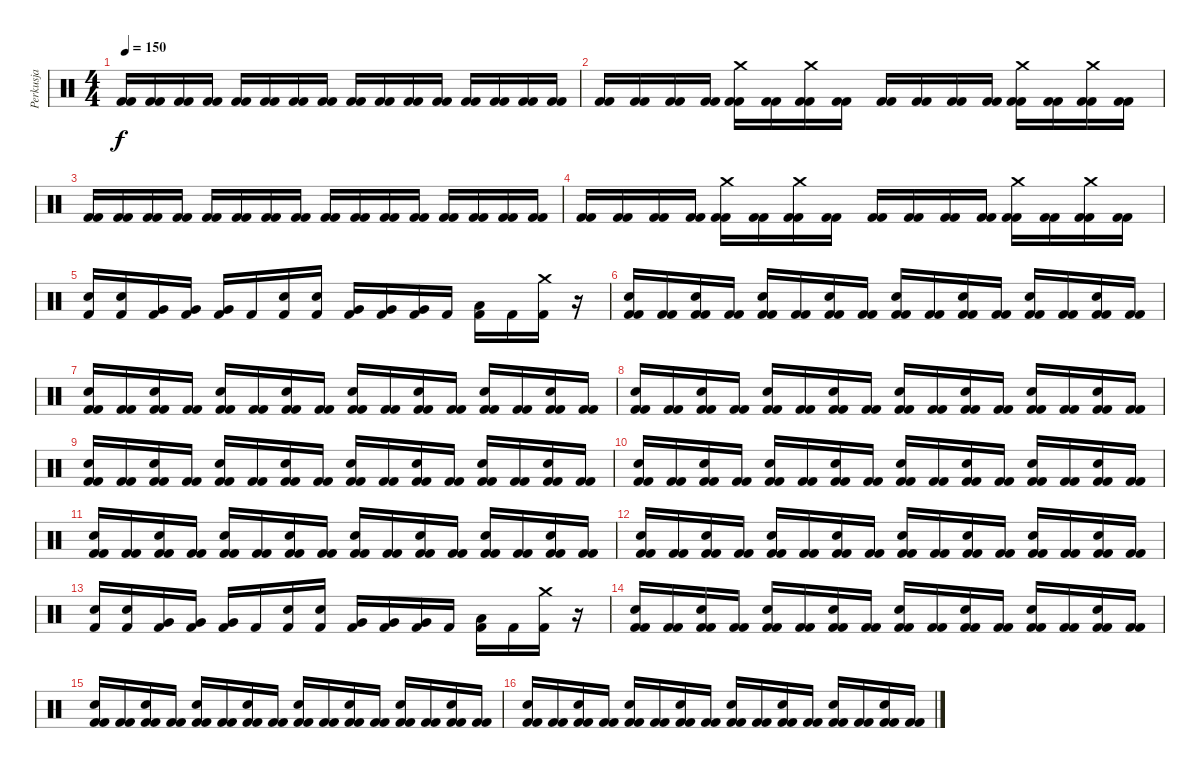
\track ("Perkusja" "Perkusja") {instrument percussion}
\staff {score}
\articulation defaults
\ts (4 4)
\tempo 150
\clef neutral
\ks c
("Kick (hit) 2" "Kick (hit) 2").16{dy f} ("Kick (hit) 2" "Kick (hit) 2").16 ("Kick (hit) 2" "Kick (hit) 2").16 ("Kick (hit) 2" "Kick (hit) 2").16 ("Kick (hit) 2" "Kick (hit) 2").16 ("Kick (hit) 2" "Kick (hit) 2").16 ("Kick (hit) 2" "Kick (hit) 2").16 ("Kick (hit) 2" "Kick (hit) 2").16 ("Kick (hit) 2" "Kick (hit) 2").16 ("Kick (hit) 2" "Kick (hit) 2").16 ("Kick (hit) 2" "Kick (hit) 2").16 ("Kick (hit) 2" "Kick (hit) 2").16 ("Kick (hit) 2" "Kick (hit) 2").16 ("Kick (hit) 2" "Kick (hit) 2").16 ("Kick (hit) 2" "Kick (hit) 2").16 ("Kick (hit) 2" "Kick (hit) 2").16 |
("Kick (hit) 2" "Kick (hit) 2").16 ("Kick (hit) 2" "Kick (hit) 2").16 ("Kick (hit) 2" "Kick (hit) 2").16 ("Kick (hit) 2" "Kick (hit) 2").16 ("Crash medium (hit)" "Kick (hit) 2" "Kick (hit) 2").16 ("Kick (hit) 2" "Kick (hit) 2").16 ("Crash medium (hit)" "Kick (hit) 2" "Kick (hit) 2").16 ("Kick (hit) 2" "Kick (hit) 2").16 ("Kick (hit) 2" "Kick (hit) 2").16 ("Kick (hit) 2" "Kick (hit) 2").16 ("Kick (hit) 2" "Kick (hit) 2").16 ("Kick (hit) 2" "Kick (hit) 2").16 ("Crash medium (hit)" "Kick (hit) 2" "Kick (hit) 2").16 ("Kick (hit) 2" "Kick (hit) 2").16 ("Crash medium (hit)" "Kick (hit) 2" "Kick (hit) 2").16 ("Kick (hit) 2" "Kick (hit) 2").16 |
("Kick (hit) 2" "Kick (hit) 2").16 ("Kick (hit) 2" "Kick (hit) 2").16 ("Kick (hit) 2" "Kick (hit) 2").16 ("Kick (hit) 2" "Kick (hit) 2").16 ("Kick (hit) 2" "Kick (hit) 2").16 ("Kick (hit) 2" "Kick (hit) 2").16 ("Kick (hit) 2" "Kick (hit) 2").16 ("Kick (hit) 2" "Kick (hit) 2").16 ("Kick (hit) 2" "Kick (hit) 2").16 ("Kick (hit) 2" "Kick (hit) 2").16 ("Kick (hit) 2" "Kick (hit) 2").16 ("Kick (hit) 2" "Kick (hit) 2").16 ("Kick (hit) 2" "Kick (hit) 2").16 ("Kick (hit) 2" "Kick (hit) 2").16 ("Kick (hit) 2" "Kick (hit) 2").16 ("Kick (hit) 2" "Kick (hit) 2").16 |
("Kick (hit) 2" "Kick (hit) 2").16 ("Kick (hit) 2" "Kick (hit) 2").16 ("Kick (hit) 2" "Kick (hit) 2").16 ("Kick (hit) 2" "Kick (hit) 2").16 ("Crash medium (hit)" "Kick (hit) 2" "Kick (hit) 2").16 ("Kick (hit) 2" "Kick (hit) 2").16 ("Crash medium (hit)" "Kick (hit) 2" "Kick (hit) 2").16 ("Kick (hit) 2" "Kick (hit) 2").16 ("Kick (hit) 2" "Kick (hit) 2").16 ("Kick (hit) 2" "Kick (hit) 2").16 ("Kick (hit) 2" "Kick (hit) 2").16 ("Kick (hit) 2" "Kick (hit) 2").16 ("Crash medium (hit)" "Kick (hit) 2" "Kick (hit) 2").16 ("Kick (hit) 2" "Kick (hit) 2").16 ("Crash medium (hit)" "Kick (hit) 2" "Kick (hit) 2").16 ("Kick (hit) 2" "Kick (hit) 2").16 |
("Electric Snare (hit)" "Kick (hit) 2").16 ("Snare (hit) 2" "Kick (hit) 2").16 ("Very Low Tom (hit)" "Kick (hit) 2").16 ("Very Low Tom (hit)" "Kick (hit) 2").16 ("Very Low Tom (hit)" "Kick (hit) 2").16 "Kick (hit) 2".16 ("Electric Snare (hit)" "Kick (hit) 2").16 ("Snare (hit) 2" "Kick (hit) 2").16 ("Very Low Tom (hit)" "Kick (hit) 2").16 ("Very Low Tom (hit)" "Kick (hit) 2").16 ("Very Low Tom (hit)" "Kick (hit) 2").16 "Kick (hit) 2".16 ("Low Tom (hit)" "Kick (hit) 2").16 "Kick (hit) 2".16 ("Crash medium (hit)" "Kick (hit) 2").16 r.16 |
("Snare (hit) 2" "Kick (hit) 2" "Kick (hit) 2").16 ("Kick (hit) 2" "Kick (hit) 2").16 ("Snare (hit) 2" "Kick (hit) 2" "Kick (hit) 2").16 ("Kick (hit) 2" "Kick (hit) 2").16 ("Snare (hit) 2" "Kick (hit) 2" "Kick (hit) 2").16 ("Kick (hit) 2" "Kick (hit) 2").16 ("Snare (hit) 2" "Kick (hit) 2" "Kick (hit) 2").16 ("Kick (hit) 2" "Kick (hit) 2").16 ("Snare (hit) 2" "Kick (hit) 2" "Kick (hit) 2").16 ("Kick (hit) 2" "Kick (hit) 2").16 ("Snare (hit) 2" "Kick (hit) 2" "Kick (hit) 2").16 ("Kick (hit) 2" "Kick (hit) 2").16 ("Snare (hit) 2" "Kick (hit) 2" "Kick (hit) 2").16 ("Kick (hit) 2" "Kick (hit) 2").16 ("Snare (hit) 2" "Kick (hit) 2" "Kick (hit) 2").16 ("Kick (hit) 2" "Kick (hit) 2").16 |
("Snare (hit) 2" "Kick (hit) 2" "Kick (hit) 2").16 ("Kick (hit) 2" "Kick (hit) 2").16 ("Snare (hit) 2" "Kick (hit) 2" "Kick (hit) 2").16 ("Kick (hit) 2" "Kick (hit) 2").16 ("Snare (hit) 2" "Kick (hit) 2" "Kick (hit) 2").16 ("Kick (hit) 2" "Kick (hit) 2").16 ("Snare (hit) 2" "Kick (hit) 2" "Kick (hit) 2").16 ("Kick (hit) 2" "Kick (hit) 2").16 ("Snare (hit) 2" "Kick (hit) 2" "Kick (hit) 2").16 ("Kick (hit) 2" "Kick (hit) 2").16 ("Snare (hit) 2" "Kick (hit) 2" "Kick (hit) 2").16 ("Kick (hit) 2" "Kick (hit) 2").16 ("Snare (hit) 2" "Kick (hit) 2" "Kick (hit) 2").16 ("Kick (hit) 2" "Kick (hit) 2").16 ("Snare (hit) 2" "Kick (hit) 2" "Kick (hit) 2").16 ("Kick (hit) 2" "Kick (hit) 2").16 |
("Snare (hit) 2" "Kick (hit) 2" "Kick (hit) 2").16 ("Kick (hit) 2" "Kick (hit) 2").16 ("Snare (hit) 2" "Kick (hit) 2" "Kick (hit) 2").16 ("Kick (hit) 2" "Kick (hit) 2").16 ("Snare (hit) 2" "Kick (hit) 2" "Kick (hit) 2").16 ("Kick (hit) 2" "Kick (hit) 2").16 ("Snare (hit) 2" "Kick (hit) 2" "Kick (hit) 2").16 ("Kick (hit) 2" "Kick (hit) 2").16 ("Snare (hit) 2" "Kick (hit) 2" "Kick (hit) 2").16 ("Kick (hit) 2" "Kick (hit) 2").16 ("Snare (hit) 2" "Kick (hit) 2" "Kick (hit) 2").16 ("Kick (hit) 2" "Kick (hit) 2").16 ("Snare (hit) 2" "Kick (hit) 2" "Kick (hit) 2").16 ("Kick (hit) 2" "Kick (hit) 2").16 ("Snare (hit) 2" "Kick (hit) 2" "Kick (hit) 2").16 ("Kick (hit) 2" "Kick (hit) 2").16 |
("Snare (hit) 2" "Kick (hit) 2" "Kick (hit) 2").16 ("Kick (hit) 2" "Kick (hit) 2").16 ("Snare (hit) 2" "Kick (hit) 2" "Kick (hit) 2").16 ("Kick (hit) 2" "Kick (hit) 2").16 ("Snare (hit) 2" "Kick (hit) 2" "Kick (hit) 2").16 ("Kick (hit) 2" "Kick (hit) 2").16 ("Snare (hit) 2" "Kick (hit) 2" "Kick (hit) 2").16 ("Kick (hit) 2" "Kick (hit) 2").16 ("Snare (hit) 2" "Kick (hit) 2" "Kick (hit) 2").16 ("Kick (hit) 2" "Kick (hit) 2").16 ("Snare (hit) 2" "Kick (hit) 2" "Kick (hit) 2").16 ("Kick (hit) 2" "Kick (hit) 2").16 ("Snare (hit) 2" "Kick (hit) 2" "Kick (hit) 2").16 ("Kick (hit) 2" "Kick (hit) 2").16 ("Snare (hit) 2" "Kick (hit) 2" "Kick (hit) 2").16 ("Kick (hit) 2" "Kick (hit) 2").16 |
("Snare (hit) 2" "Kick (hit) 2" "Kick (hit) 2").16 ("Kick (hit) 2" "Kick (hit) 2").16 ("Snare (hit) 2" "Kick (hit) 2" "Kick (hit) 2").16 ("Kick (hit) 2" "Kick (hit) 2").16 ("Snare (hit) 2" "Kick (hit) 2" "Kick (hit) 2").16 ("Kick (hit) 2" "Kick (hit) 2").16 ("Snare (hit) 2" "Kick (hit) 2" "Kick (hit) 2").16 ("Kick (hit) 2" "Kick (hit) 2").16 ("Snare (hit) 2" "Kick (hit) 2" "Kick (hit) 2").16 ("Kick (hit) 2" "Kick (hit) 2").16 ("Snare (hit) 2" "Kick (hit) 2" "Kick (hit) 2").16 ("Kick (hit) 2" "Kick (hit) 2").16 ("Snare (hit) 2" "Kick (hit) 2" "Kick (hit) 2").16 ("Kick (hit) 2" "Kick (hit) 2").16 ("Snare (hit) 2" "Kick (hit) 2" "Kick (hit) 2").16 ("Kick (hit) 2" "Kick (hit) 2").16 |
("Snare (hit) 2" "Kick (hit) 2" "Kick (hit) 2").16 ("Kick (hit) 2" "Kick (hit) 2").16 ("Snare (hit) 2" "Kick (hit) 2" "Kick (hit) 2").16 ("Kick (hit) 2" "Kick (hit) 2").16 ("Snare (hit) 2" "Kick (hit) 2" "Kick (hit) 2").16 ("Kick (hit) 2" "Kick (hit) 2").16 ("Snare (hit) 2" "Kick (hit) 2" "Kick (hit) 2").16 ("Kick (hit) 2" "Kick (hit) 2").16 ("Snare (hit) 2" "Kick (hit) 2" "Kick (hit) 2").16 ("Kick (hit) 2" "Kick (hit) 2").16 ("Snare (hit) 2" "Kick (hit) 2" "Kick (hit) 2").16 ("Kick (hit) 2" "Kick (hit) 2").16 ("Snare (hit) 2" "Kick (hit) 2" "Kick (hit) 2").16 ("Kick (hit) 2" "Kick (hit) 2").16 ("Snare (hit) 2" "Kick (hit) 2" "Kick (hit) 2").16 ("Kick (hit) 2" "Kick (hit) 2").16 |
("Snare (hit) 2" "Kick (hit) 2" "Kick (hit) 2").16 ("Kick (hit) 2" "Kick (hit) 2").16 ("Snare (hit) 2" "Kick (hit) 2" "Kick (hit) 2").16 ("Kick (hit) 2" "Kick (hit) 2").16 ("Snare (hit) 2" "Kick (hit) 2" "Kick (hit) 2").16 ("Kick (hit) 2" "Kick (hit) 2").16 ("Snare (hit) 2" "Kick (hit) 2" "Kick (hit) 2").16 ("Kick (hit) 2" "Kick (hit) 2").16 ("Snare (hit) 2" "Kick (hit) 2" "Kick (hit) 2").16 ("Kick (hit) 2" "Kick (hit) 2").16 ("Snare (hit) 2" "Kick (hit) 2" "Kick (hit) 2").16 ("Kick (hit) 2" "Kick (hit) 2").16 ("Snare (hit) 2" "Kick (hit) 2" "Kick (hit) 2").16 ("Kick (hit) 2" "Kick (hit) 2").16 ("Snare (hit) 2" "Kick (hit) 2" "Kick (hit) 2").16 ("Kick (hit) 2" "Kick (hit) 2").16 |
("Electric Snare (hit)" "Kick (hit) 2").16 ("Snare (hit) 2" "Kick (hit) 2").16 ("Very Low Tom (hit)" "Kick (hit) 2").16 ("Very Low Tom (hit)" "Kick (hit) 2").16 ("Very Low Tom (hit)" "Kick (hit) 2").16 "Kick (hit) 2".16 ("Electric Snare (hit)" "Kick (hit) 2").16 ("Snare (hit) 2" "Kick (hit) 2").16 ("Very Low Tom (hit)" "Kick (hit) 2").16 ("Very Low Tom (hit)" "Kick (hit) 2").16 ("Very Low Tom (hit)" "Kick (hit) 2").16 "Kick (hit) 2".16 ("Low Tom (hit)" "Kick (hit) 2").16 "Kick (hit) 2".16 ("Crash medium (hit)" "Kick (hit) 2").16 r.16 |
("Snare (hit) 2" "Kick (hit) 2" "Kick (hit) 2").16 ("Kick (hit) 2" "Kick (hit) 2").16 ("Snare (hit) 2" "Kick (hit) 2" "Kick (hit) 2").16 ("Kick (hit) 2" "Kick (hit) 2").16 ("Snare (hit) 2" "Kick (hit) 2" "Kick (hit) 2").16 ("Kick (hit) 2" "Kick (hit) 2").16 ("Snare (hit) 2" "Kick (hit) 2" "Kick (hit) 2").16 ("Kick (hit) 2" "Kick (hit) 2").16 ("Snare (hit) 2" "Kick (hit) 2" "Kick (hit) 2").16 ("Kick (hit) 2" "Kick (hit) 2").16 ("Snare (hit) 2" "Kick (hit) 2" "Kick (hit) 2").16 ("Kick (hit) 2" "Kick (hit) 2").16 ("Snare (hit) 2" "Kick (hit) 2" "Kick (hit) 2").16 ("Kick (hit) 2" "Kick (hit) 2").16 ("Snare (hit) 2" "Kick (hit) 2" "Kick (hit) 2").16 ("Kick (hit) 2" "Kick (hit) 2").16 |
("Snare (hit) 2" "Kick (hit) 2" "Kick (hit) 2").16 ("Kick (hit) 2" "Kick (hit) 2").16 ("Snare (hit) 2" "Kick (hit) 2" "Kick (hit) 2").16 ("Kick (hit) 2" "Kick (hit) 2").16 ("Snare (hit) 2" "Kick (hit) 2" "Kick (hit) 2").16 ("Kick (hit) 2" "Kick (hit) 2").16 ("Snare (hit) 2" "Kick (hit) 2" "Kick (hit) 2").16 ("Kick (hit) 2" "Kick (hit) 2").16 ("Snare (hit) 2" "Kick (hit) 2" "Kick (hit) 2").16 ("Kick (hit) 2" "Kick (hit) 2").16 ("Snare (hit) 2" "Kick (hit) 2" "Kick (hit) 2").16 ("Kick (hit) 2" "Kick (hit) 2").16 ("Snare (hit) 2" "Kick (hit) 2" "Kick (hit) 2").16 ("Kick (hit) 2" "Kick (hit) 2").16 ("Snare (hit) 2" "Kick (hit) 2" "Kick (hit) 2").16 ("Kick (hit) 2" "Kick (hit) 2").16 |
("Snare (hit) 2" "Kick (hit) 2" "Kick (hit) 2").16 ("Kick (hit) 2" "Kick (hit) 2").16 ("Snare (hit) 2" "Kick (hit) 2" "Kick (hit) 2").16 ("Kick (hit) 2" "Kick (hit) 2").16 ("Snare (hit) 2" "Kick (hit) 2" "Kick (hit) 2").16 ("Kick (hit) 2" "Kick (hit) 2").16 ("Snare (hit) 2" "Kick (hit) 2" "Kick (hit) 2").16 ("Kick (hit) 2" "Kick (hit) 2").16 ("Snare (hit) 2" "Kick (hit) 2" "Kick (hit) 2").16 ("Kick (hit) 2" "Kick (hit) 2").16 ("Snare (hit) 2" "Kick (hit) 2" "Kick (hit) 2").16 ("Kick (hit) 2" "Kick (hit) 2").16 ("Snare (hit) 2" "Kick (hit) 2" "Kick (hit) 2").16 ("Kick (hit) 2" "Kick (hit) 2").16 ("Snare (hit) 2" "Kick (hit) 2" "Kick (hit) 2").16 ("Kick (hit) 2" "Kick (hit) 2").16
